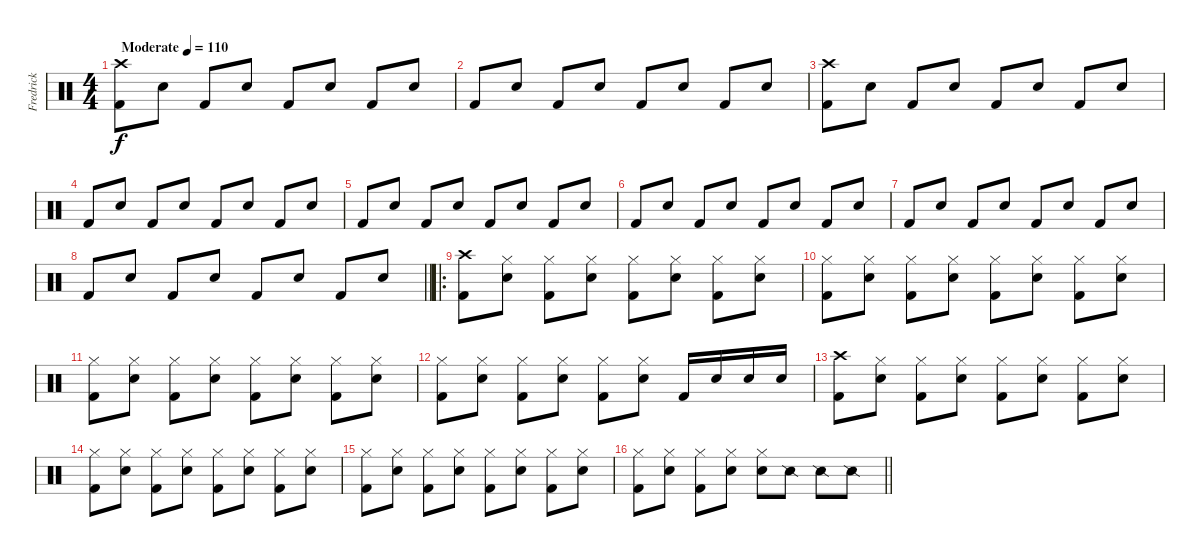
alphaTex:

\track ("Fredrick" "Fredrick") {instrument percussion}
\staff {score}
\articulation defaults
\ts (4 4)
\tempo (110 "Moderate")
\clef neutral
\ks c
("Crash high (hit)" "Kick (hit) 2").8{dy f} "Electric Snare (hit)".8 "Kick (hit) 2".8 "Electric Snare (hit)".8 "Kick (hit) 2".8 "Electric Snare (hit)".8 "Kick (hit) 2".8 "Electric Snare (hit)".8 |
"Kick (hit) 2".8 "Electric Snare (hit)".8 "Kick (hit) 2".8 "Electric Snare (hit)".8 "Kick (hit) 2".8 "Electric Snare (hit)".8 "Kick (hit) 2".8 "Electric Snare (hit)".8 |
("Crash high (hit)" "Kick (hit) 2").8 "Electric Snare (hit)".8 "Kick (hit) 2".8 "Electric Snare (hit)".8 "Kick (hit) 2".8 "Electric Snare (hit)".8 "Kick (hit) 2".8 "Electric Snare (hit)".8 |
"Kick (hit) 2".8 "Electric Snare (hit)".8 "Kick (hit) 2".8 "Electric Snare (hit)".8 "Kick (hit) 2".8 "Electric Snare (hit)".8 "Kick (hit) 2".8 "Electric Snare (hit)".8 |
"Kick (hit) 2".8 "Electric Snare (hit)".8 "Kick (hit) 2".8 "Electric Snare (hit)".8 "Kick (hit) 2".8 "Electric Snare (hit)".8 "Kick (hit) 2".8 "Electric Snare (hit)".8 |
"Kick (hit) 2".8 "Electric Snare (hit)".8 "Kick (hit) 2".8 "Electric Snare (hit)".8 "Kick (hit) 2".8 "Electric Snare (hit)".8 "Kick (hit) 2".8 "Electric Snare (hit)".8 |
"Kick (hit) 2".8 "Electric Snare (hit)".8 "Kick (hit) 2".8 "Electric Snare (hit)".8 "Kick (hit) 2".8 "Electric Snare (hit)".8 "Kick (hit) 2".8 "Electric Snare (hit)".8 |
\barLineRight lightlight "Kick (hit) 2".8 "Electric Snare (hit)".8 "Kick (hit) 2".8 "Electric Snare (hit)".8 "Kick (hit) 2".8 "Electric Snare (hit)".8 "Kick (hit) 2".8 "Electric Snare (hit)".8
|
\ro
("Crash high (hit)" "Kick (hit) 2").8 ("Hi-Hat (closed)" "Electric Snare (hit)").8 ("Hi-Hat (closed)" "Kick (hit) 2").8 ("Hi-Hat (closed)" "Electric Snare (hit)").8 ("Hi-Hat (closed)" "Kick (hit) 2").8 ("Hi-Hat (closed)" "Electric Snare (hit)").8 ("Hi-Hat (closed)" "Kick (hit) 2").8 ("Hi-Hat (closed)" "Electric Snare (hit)").8 |
("Hi-Hat (closed)" "Kick (hit) 2").8 ("Hi-Hat (closed)" "Electric Snare (hit)").8 ("Hi-Hat (closed)" "Kick (hit) 2").8 ("Hi-Hat (closed)" "Electric Snare (hit)").8 ("Hi-Hat (closed)" "Kick (hit) 2").8 ("Hi-Hat (closed)" "Electric Snare (hit)").8 ("Hi-Hat (closed)" "Kick (hit) 2").8 ("Hi-Hat (closed)" "Electric Snare (hit)").8 |
("Hi-Hat (closed)" "Kick (hit) 2").8 ("Hi-Hat (closed)" "Electric Snare (hit)").8 ("Hi-Hat (closed)" "Kick (hit) 2").8 ("Hi-Hat (closed)" "Electric Snare (hit)").8 ("Hi-Hat (closed)" "Kick (hit) 2").8 ("Hi-Hat (closed)" "Electric Snare (hit)").8 ("Hi-Hat (closed)" "Kick (hit) 2").8 ("Hi-Hat (closed)" "Electric Snare (hit)").8 |
("Hi-Hat (closed)" "Kick (hit) 2").8 ("Hi-Hat (closed)" "Electric Snare (hit)").8 ("Hi-Hat (closed)" "Kick (hit) 2").8 ("Hi-Hat (closed)" "Electric Snare (hit)").8 ("Hi-Hat (closed)" "Kick (hit) 2").8 ("Hi-Hat (closed)" "Electric Snare (hit)").8 "Kick (hit) 2".16 "Electric Snare (hit)".16 "Electric Snare (hit)".16 "Electric Snare (hit)".16 |
("Crash high (hit)" "Kick (hit) 2").8 ("Hi-Hat (closed)" "Electric Snare (hit)").8 ("Hi-Hat (closed)" "Kick (hit) 2").8 ("Hi-Hat (closed)" "Electric Snare (hit)").8 ("Hi-Hat (closed)" "Kick (hit) 2").8 ("Hi-Hat (closed)" "Electric Snare (hit)").8 ("Hi-Hat (closed)" "Kick (hit) 2").8 ("Hi-Hat (closed)" "Electric Snare (hit)").8 |
("Hi-Hat (closed)" "Kick (hit) 2").8 ("Hi-Hat (closed)" "Electric Snare (hit)").8 ("Hi-Hat (closed)" "Kick (hit) 2").8 ("Hi-Hat (closed)" "Electric Snare (hit)").8 ("Hi-Hat (closed)" "Kick (hit) 2").8 ("Hi-Hat (closed)" "Electric Snare (hit)").8 ("Hi-Hat (closed)" "Kick (hit) 2").8 ("Hi-Hat (closed)" "Electric Snare (hit)").8 |
("Hi-Hat (closed)" "Kick (hit) 2").8 ("Hi-Hat (closed)" "Electric Snare (hit)").8 ("Hi-Hat (closed)" "Kick (hit) 2").8 ("Hi-Hat (closed)" "Electric Snare (hit)").8 ("Hi-Hat (closed)" "Kick (hit) 2").8 ("Hi-Hat (closed)" "Electric Snare (hit)").8 ("Hi-Hat (closed)" "Kick (hit) 2").8 ("Hi-Hat (closed)" "Electric Snare (hit)").8 |
\barLineRight lightlight
("Hi-Hat (closed)" "Kick (hit) 2").8 ("Hi-Hat (closed)" "Electric Snare (hit)").8 ("Hi-Hat (closed)" "Kick (hit) 2").8 ("Hi-Hat (closed)" "Electric Snare (hit)").8 ("Hi-Hat (closed)" "Electric Snare (hit)").8 "Snare (side stick) 2".8 "Snare (side stick) 2".8 "Snare (side stick) 2".8
